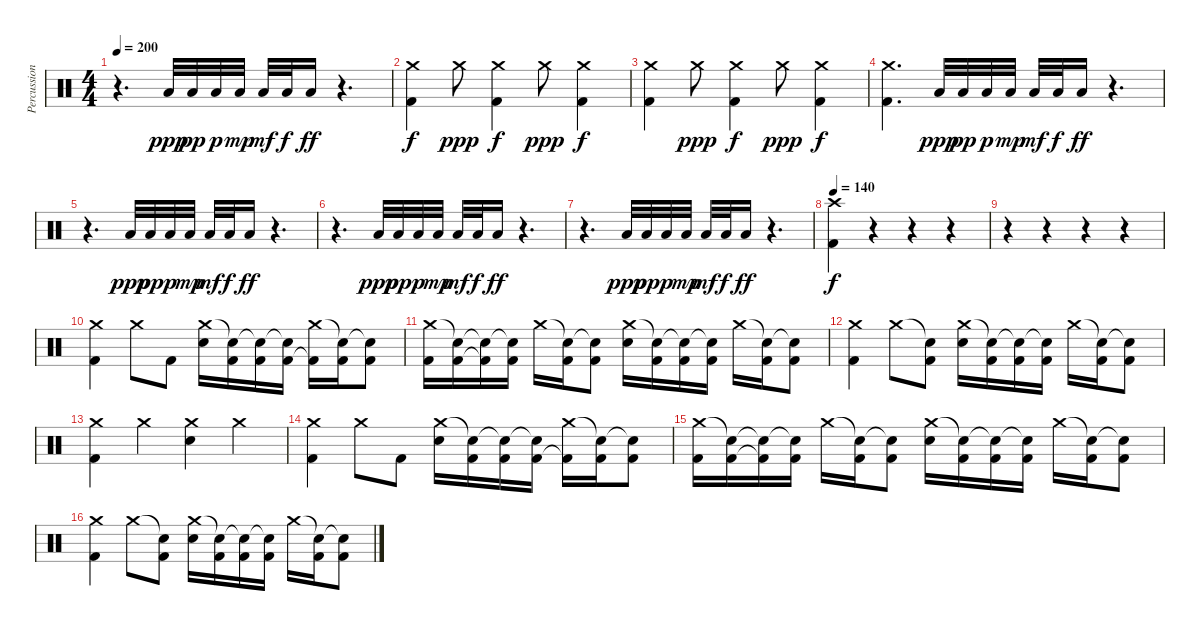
\track ("Percussion" "Percussion") {instrument percussion}
\staff {score}
\articulation defaults
\ts (4 4)
\tempo 200
\clef neutral
\ks c
r.4{d dy ff} "Low Floor Tom (hit)".32{dy ppp} "Low Floor Tom (hit)".32{dy pp} "Low Floor Tom (hit)".32{dy p} "Low Floor Tom (hit)".32{dy mp} "Low Floor Tom (hit)".32{dy mf} "Low Floor Tom (hit)".32{dy f} "Low Floor Tom (hit)".16{dy ff} r.4{d} |
("Crash medium (hit)" "Kick (hit) 2").4{dy f} "Crash medium (hit)".8{dy ppp} ("Crash medium (hit)" "Kick (hit) 2").4{dy f} "Crash medium (hit)".8{dy ppp} ("Crash medium (hit)" "Kick (hit) 2").4{dy f} |
("Crash medium (hit)" "Kick (hit) 2").4 "Crash medium (hit)".8{dy ppp} ("Crash medium (hit)" "Kick (hit) 2").4{dy f} "Crash medium (hit)".8{dy ppp} ("Crash medium (hit)" "Kick (hit) 2").4{dy f} |
("Crash medium (hit)" "Kick (hit) 2").4{d} "Low Floor Tom (hit)".32{dy ppp} "Low Floor Tom (hit)".32{dy pp} "Low Floor Tom (hit)".32{dy p} "Low Floor Tom (hit)".32{dy mp} "Low Floor Tom (hit)".32{dy mf} "Low Floor Tom (hit)".32{dy f} "Low Floor Tom (hit)".16{dy ff} r.4{d} |
r.4{d} "Low Floor Tom (hit)".32{dy ppp} "Low Floor Tom (hit)".32{dy pp} "Low Floor Tom (hit)".32{dy p} "Low Floor Tom (hit)".32{dy mp} "Low Floor Tom (hit)".32{dy mf} "Low Floor Tom (hit)".32{dy f} "Low Floor Tom (hit)".16{dy ff} r.4{d} |
r.4{d} "Low Floor Tom (hit)".32{dy ppp} "Low Floor Tom (hit)".32{dy pp} "Low Floor Tom (hit)".32{dy p} "Low Floor Tom (hit)".32{dy mp} "Low Floor Tom (hit)".32{dy mf} "Low Floor Tom (hit)".32{dy f} "Low Floor Tom (hit)".16{dy ff} r.4{d} |
r.4{d} "Low Floor Tom (hit)".32{dy ppp} "Low Floor Tom (hit)".32{dy pp} "Low Floor Tom (hit)".32{dy p} "Low Floor Tom (hit)".32{dy mp} "Low Floor Tom (hit)".32{dy mf} "Low Floor Tom (hit)".32{dy f} "Low Floor Tom (hit)".16{dy ff} r.4{d} |
\tempo 140
("Crash high (hit)" "Kick (hit) 2").4{dy f} r.4 r.4 r.4 |
r.4 r.4 r.4 r.4 |
("Crash medium (hit)" "Kick (hit) 2").4 "Crash medium (hit)".8 "Kick (hit) 2".8 ("Crash medium (hit)" "Snare (hit) 2").16 ("Snare (hit)"{t} "Kick (hit) 2").16 ("Snare (hit)"{t} "Kick (hit) 2").16 ("Snare (hit)"{t} "Kick (hit) 2").16 ("Crash medium (hit)" "Kick (hit) 2"{t}).16 ("Snare (hit)"{t} "Kick (hit) 2").16 ("Snare (hit)"{t} "Kick (hit) 2").8 |
("Crash medium (hit)" "Kick (hit) 2").16 ("Snare (hit)"{t} "Kick (hit) 2").16 ("Snare (hit)"{t} "Kick (hit) 2"{t}).16 ("Snare (hit)"{t} "Kick (hit) 2").16 "Crash medium (hit)".16 ("Snare (hit)"{t} "Kick (hit) 2").16 ("Snare (hit)"{t} "Kick (hit) 2").8 ("Crash medium (hit)" "Snare (hit) 2").16 ("Snare (hit)"{t} "Kick (hit) 2").16 ("Snare (hit)"{t} "Kick (hit) 2").16 ("Snare (hit)"{t} "Kick (hit) 2").16 "Crash medium (hit)".16 ("Snare (hit)"{t} "Kick (hit) 2").16 ("Snare (hit)"{t} "Kick (hit) 2").8 |
("Crash medium (hit)" "Kick (hit) 2").4 "Crash medium (hit)".8 ("Snare (hit)"{t} "Kick (hit) 2").8 ("Crash medium (hit)" "Snare (hit) 2").16 ("Snare (hit)"{t} "Kick (hit) 2").16 ("Snare (hit)"{t} "Kick (hit) 2").16 ("Snare (hit)"{t} "Kick (hit) 2").16 "Crash medium (hit)".16 ("Snare (hit)"{t} "Kick (hit) 2").16 ("Snare (hit)"{t} "Kick (hit) 2").8 |
("Crash medium (hit)" "Kick (hit) 2").4 "Crash medium (hit)".4 ("Crash medium (hit)" "Snare (hit) 2").4 "Crash medium (hit)".4 |
("Crash medium (hit)" "Kick (hit) 2").4 "Crash medium (hit)".8 "Kick (hit) 2".8 ("Crash medium (hit)" "Snare (hit) 2").16 ("Snare (hit)"{t} "Kick (hit) 2").16 ("Snare (hit)"{t} "Kick (hit) 2").16 ("Snare (hit)"{t} "Kick (hit) 2").16 ("Crash medium (hit)" "Kick (hit) 2"{t}).16 ("Snare (hit)"{t} "Kick (hit) 2").16 ("Snare (hit)"{t} "Kick (hit) 2").8 |
("Crash medium (hit)" "Kick (hit) 2").16 ("Snare (hit)"{t} "Kick (hit) 2").16 ("Snare (hit)"{t} "Kick (hit) 2"{t}).16 ("Snare (hit)"{t} "Kick (hit) 2").16 "Crash medium (hit)".16 ("Snare (hit)"{t} "Kick (hit) 2").16 ("Snare (hit)"{t} "Kick (hit) 2").8 ("Crash medium (hit)" "Snare (hit) 2").16 ("Snare (hit)"{t} "Kick (hit) 2").16 ("Snare (hit)"{t} "Kick (hit) 2").16 ("Snare (hit)"{t} "Kick (hit) 2").16 "Crash medium (hit)".16 ("Snare (hit)"{t} "Kick (hit) 2").16 ("Snare (hit)"{t} "Kick (hit) 2").8 |
("Crash medium (hit)" "Kick (hit) 2").4 "Crash medium (hit)".8 ("Snare (hit)"{t} "Kick (hit) 2").8 ("Crash medium (hit)" "Snare (hit) 2").16 ("Snare (hit)"{t} "Kick (hit) 2").16 ("Snare (hit)"{t} "Kick (hit) 2").16 ("Snare (hit)"{t} "Kick (hit) 2").16 "Crash medium (hit)".16 ("Snare (hit)"{t} "Kick (hit) 2").16 ("Snare (hit)"{t} "Kick (hit) 2").8
